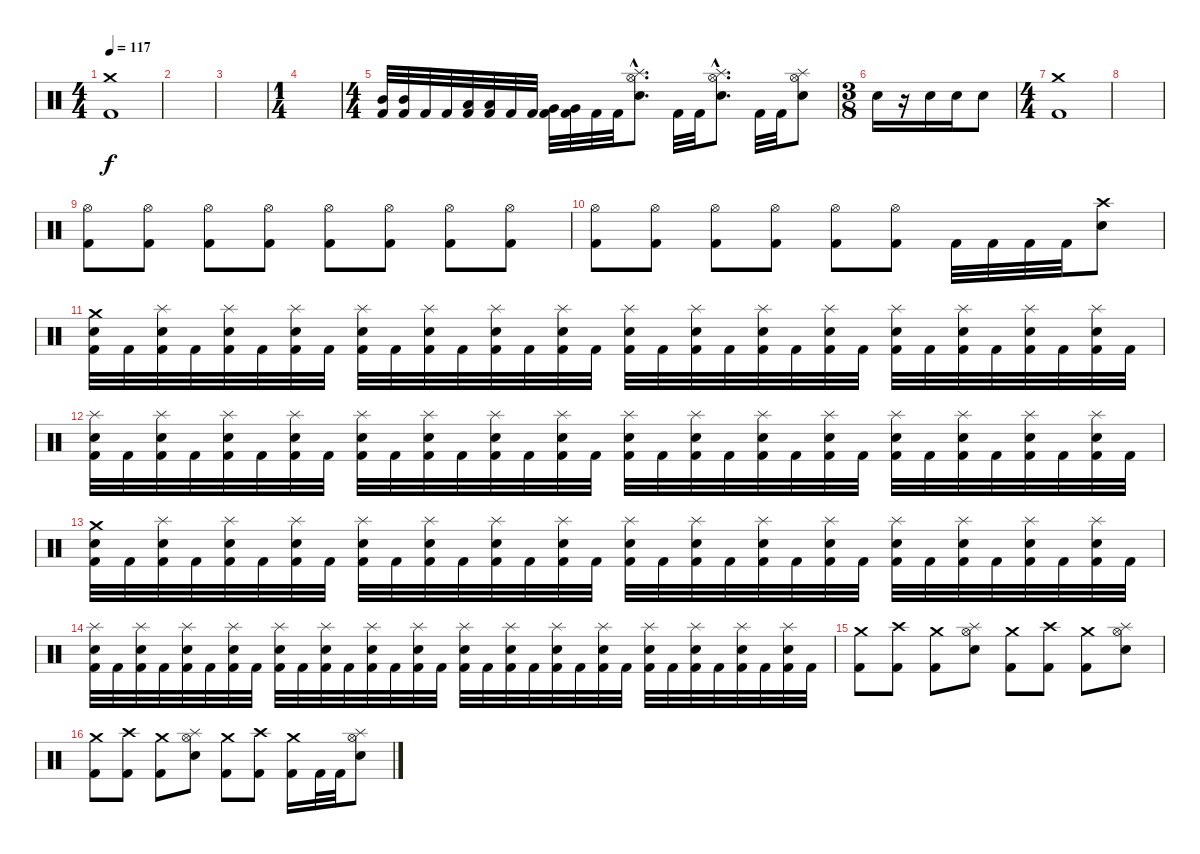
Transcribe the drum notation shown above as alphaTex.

\track "" {instrument percussion}
\staff {score}
\articulation defaults
\ts (4 4)
\tempo 117
\clef neutral
\ks c
("Kick (hit) 2" "Crash medium (hit)").1{dy f} |
|
|
\ts (1 4)
|
\ts (4 4)
("Mid Tom (hit)" "Kick (hit) 2").32 ("Mid Tom (hit)" "Kick (hit) 2").32 "Kick (hit) 2".32 "Kick (hit) 2".32 ("Low Tom (hit)" "Kick (hit) 2").32 ("Low Tom (hit)" "Kick (hit) 2").32 "Kick (hit) 2".32 "Kick (hit) 2".32 ("Very Low Tom (hit)" "Kick (hit) 2").32 ("Very Low Tom (hit)" "Kick (hit) 2").32 "Kick (hit) 2".32 "Kick (hit) 2".32 ("Electric Snare (hit)"{hac} "Hi-Hat (open)"{hac} "Splash (hit)"{hac}).8{d} "Kick (hit) 2".32 "Kick (hit) 2".32 ("Electric Snare (hit)"{hac} "Hi-Hat (open)"{hac} "Splash (hit)"{hac}).8{d} "Kick (hit) 2".32 "Kick (hit) 2".32 ("Electric Snare (hit)" "Hi-Hat (open)" "Splash (hit)").8 |
\ts (3 8)
"Electric Snare (hit)".16 r.16 "Electric Snare (hit)".16 "Electric Snare (hit)".16 "Electric Snare (hit)".8 |
\ts (4 4)
("Kick (hit) 2" "Crash medium (hit)").1 |
|
("Kick (hit) 2" "Hi-Hat (open)").8 ("Kick (hit) 2" "Hi-Hat (open)").8 ("Kick (hit) 2" "Hi-Hat (open)").8 ("Kick (hit) 2" "Hi-Hat (open)").8 ("Kick (hit) 2" "Hi-Hat (open)").8 ("Kick (hit) 2" "Hi-Hat (open)").8 ("Kick (hit) 2" "Hi-Hat (open)").8 ("Kick (hit) 2" "Hi-Hat (open)").8 |
("Kick (hit) 2" "Hi-Hat (open)").8 ("Kick (hit) 2" "Hi-Hat (open)").8 ("Kick (hit) 2" "Hi-Hat (open)").8 ("Kick (hit) 2" "Hi-Hat (open)").8 ("Kick (hit) 2" "Hi-Hat (open)").8 ("Kick (hit) 2" "Hi-Hat (open)").8 "Kick (hit) 2".32 "Kick (hit) 2".32 "Kick (hit) 2".32 "Kick (hit) 2".32 ("Electric Snare (hit)" "Crash high (hit)").8 |
("Electric Snare (hit)" "Crash medium (hit)" "Kick (hit) 2").32 "Kick (hit) 2".32 ("Electric Snare (hit)" "Splash (hit)" "Kick (hit) 2").32 "Kick (hit) 2".32 ("Electric Snare (hit)" "Splash (hit)" "Kick (hit) 2").32 "Kick (hit) 2".32 ("Electric Snare (hit)" "Splash (hit)" "Kick (hit) 2").32 "Kick (hit) 2".32 ("Electric Snare (hit)" "Splash (hit)" "Kick (hit) 2").32 "Kick (hit) 2".32 ("Electric Snare (hit)" "Splash (hit)" "Kick (hit) 2").32 "Kick (hit) 2".32 ("Electric Snare (hit)" "Splash (hit)" "Kick (hit) 2").32 "Kick (hit) 2".32 ("Electric Snare (hit)" "Splash (hit)" "Kick (hit) 2").32 "Kick (hit) 2".32 ("Electric Snare (hit)" "Splash (hit)" "Kick (hit) 2").32 "Kick (hit) 2".32 ("Electric Snare (hit)" "Splash (hit)" "Kick (hit) 2").32 "Kick (hit) 2".32 ("Electric Snare (hit)" "Splash (hit)" "Kick (hit) 2").32 "Kick (hit) 2".32 ("Electric Snare (hit)" "Splash (hit)" "Kick (hit) 2").32 "Kick (hit) 2".32 ("Electric Snare (hit)" "Splash (hit)" "Kick (hit) 2").32 "Kick (hit) 2".32 ("Electric Snare (hit)" "Splash (hit)" "Kick (hit) 2").32 "Kick (hit) 2".32 ("Electric Snare (hit)" "Splash (hit)" "Kick (hit) 2").32 "Kick (hit) 2".32 ("Electric Snare (hit)" "Splash (hit)" "Kick (hit) 2").32 "Kick (hit) 2".32 |
("Electric Snare (hit)" "Splash (hit)" "Kick (hit) 2").32 "Kick (hit) 2".32 ("Electric Snare (hit)" "Splash (hit)" "Kick (hit) 2").32 "Kick (hit) 2".32 ("Electric Snare (hit)" "Splash (hit)" "Kick (hit) 2").32 "Kick (hit) 2".32 ("Electric Snare (hit)" "Splash (hit)" "Kick (hit) 2").32 "Kick (hit) 2".32 ("Electric Snare (hit)" "Splash (hit)" "Kick (hit) 2").32 "Kick (hit) 2".32 ("Electric Snare (hit)" "Splash (hit)" "Kick (hit) 2").32 "Kick (hit) 2".32 ("Electric Snare (hit)" "Splash (hit)" "Kick (hit) 2").32 "Kick (hit) 2".32 ("Electric Snare (hit)" "Splash (hit)" "Kick (hit) 2").32 "Kick (hit) 2".32 ("Electric Snare (hit)" "Splash (hit)" "Kick (hit) 2").32 "Kick (hit) 2".32 ("Electric Snare (hit)" "Splash (hit)" "Kick (hit) 2").32 "Kick (hit) 2".32 ("Electric Snare (hit)" "Splash (hit)" "Kick (hit) 2").32 "Kick (hit) 2".32 ("Electric Snare (hit)" "Splash (hit)" "Kick (hit) 2").32 "Kick (hit) 2".32 ("Electric Snare (hit)" "Splash (hit)" "Kick (hit) 2").32 "Kick (hit) 2".32 ("Electric Snare (hit)" "Splash (hit)" "Kick (hit) 2").32 "Kick (hit) 2".32 ("Electric Snare (hit)" "Splash (hit)" "Kick (hit) 2").32 "Kick (hit) 2".32 ("Electric Snare (hit)" "Splash (hit)" "Kick (hit) 2").32 "Kick (hit) 2".32 |
("Electric Snare (hit)" "Crash medium (hit)" "Kick (hit) 2").32 "Kick (hit) 2".32 ("Electric Snare (hit)" "Splash (hit)" "Kick (hit) 2").32 "Kick (hit) 2".32 ("Electric Snare (hit)" "Splash (hit)" "Kick (hit) 2").32 "Kick (hit) 2".32 ("Electric Snare (hit)" "Splash (hit)" "Kick (hit) 2").32 "Kick (hit) 2".32 ("Electric Snare (hit)" "Splash (hit)" "Kick (hit) 2").32 "Kick (hit) 2".32 ("Electric Snare (hit)" "Splash (hit)" "Kick (hit) 2").32 "Kick (hit) 2".32 ("Electric Snare (hit)" "Splash (hit)" "Kick (hit) 2").32 "Kick (hit) 2".32 ("Electric Snare (hit)" "Splash (hit)" "Kick (hit) 2").32 "Kick (hit) 2".32 ("Electric Snare (hit)" "Splash (hit)" "Kick (hit) 2").32 "Kick (hit) 2".32 ("Electric Snare (hit)" "Splash (hit)" "Kick (hit) 2").32 "Kick (hit) 2".32 ("Electric Snare (hit)" "Splash (hit)" "Kick (hit) 2").32 "Kick (hit) 2".32 ("Electric Snare (hit)" "Splash (hit)" "Kick (hit) 2").32 "Kick (hit) 2".32 ("Electric Snare (hit)" "Splash (hit)" "Kick (hit) 2").32 "Kick (hit) 2".32 ("Electric Snare (hit)" "Splash (hit)" "Kick (hit) 2").32 "Kick (hit) 2".32 ("Electric Snare (hit)" "Splash (hit)" "Kick (hit) 2").32 "Kick (hit) 2".32 ("Electric Snare (hit)" "Splash (hit)" "Kick (hit) 2").32 "Kick (hit) 2".32 |
("Electric Snare (hit)" "Splash (hit)" "Kick (hit) 2").32 "Kick (hit) 2".32 ("Electric Snare (hit)" "Splash (hit)" "Kick (hit) 2").32 "Kick (hit) 2".32 ("Electric Snare (hit)" "Splash (hit)" "Kick (hit) 2").32 "Kick (hit) 2".32 ("Electric Snare (hit)" "Splash (hit)" "Kick (hit) 2").32 "Kick (hit) 2".32 ("Electric Snare (hit)" "Splash (hit)" "Kick (hit) 2").32 "Kick (hit) 2".32 ("Electric Snare (hit)" "Splash (hit)" "Kick (hit) 2").32 "Kick (hit) 2".32 ("Electric Snare (hit)" "Splash (hit)" "Kick (hit) 2").32 "Kick (hit) 2".32 ("Electric Snare (hit)" "Splash (hit)" "Kick (hit) 2").32 "Kick (hit) 2".32 ("Electric Snare (hit)" "Splash (hit)" "Kick (hit) 2").32 "Kick (hit) 2".32 ("Electric Snare (hit)" "Splash (hit)" "Kick (hit) 2").32 "Kick (hit) 2".32 ("Electric Snare (hit)" "Splash (hit)" "Kick (hit) 2").32 "Kick (hit) 2".32 ("Electric Snare (hit)" "Splash (hit)" "Kick (hit) 2").32 "Kick (hit) 2".32 ("Electric Snare (hit)" "Splash (hit)" "Kick (hit) 2").32 "Kick (hit) 2".32 ("Electric Snare (hit)" "Splash (hit)" "Kick (hit) 2").32 "Kick (hit) 2".32 ("Electric Snare (hit)" "Splash (hit)" "Kick (hit) 2").32 "Kick (hit) 2".32 ("Electric Snare (hit)" "Splash (hit)" "Kick (hit) 2").32 "Kick (hit) 2".32 |
("Kick (hit) 2" "Crash medium (hit)").8 ("Kick (hit) 2" "Crash high (hit)").8 ("Kick (hit) 2" "Crash medium (hit)").8 ("Electric Snare (hit)" "Splash (hit)" "Hi-Hat (open)").8 ("Kick (hit) 2" "Crash medium (hit)").8 ("Kick (hit) 2" "Crash high (hit)").8 ("Kick (hit) 2" "Crash medium (hit)").8 ("Electric Snare (hit)" "Splash (hit)" "Hi-Hat (open)").8 |
("Kick (hit) 2" "Crash medium (hit)").8 ("Kick (hit) 2" "Crash high (hit)").8 ("Kick (hit) 2" "Crash medium (hit)").8 ("Electric Snare (hit)" "Splash (hit)" "Hi-Hat (open)").8 ("Kick (hit) 2" "Crash medium (hit)").8 ("Kick (hit) 2" "Crash high (hit)").8 ("Kick (hit) 2" "Crash medium (hit)").16 "Kick (hit) 2".32 "Kick (hit) 2".32 ("Electric Snare (hit)" "Splash (hit)" "Hi-Hat (open)").8
